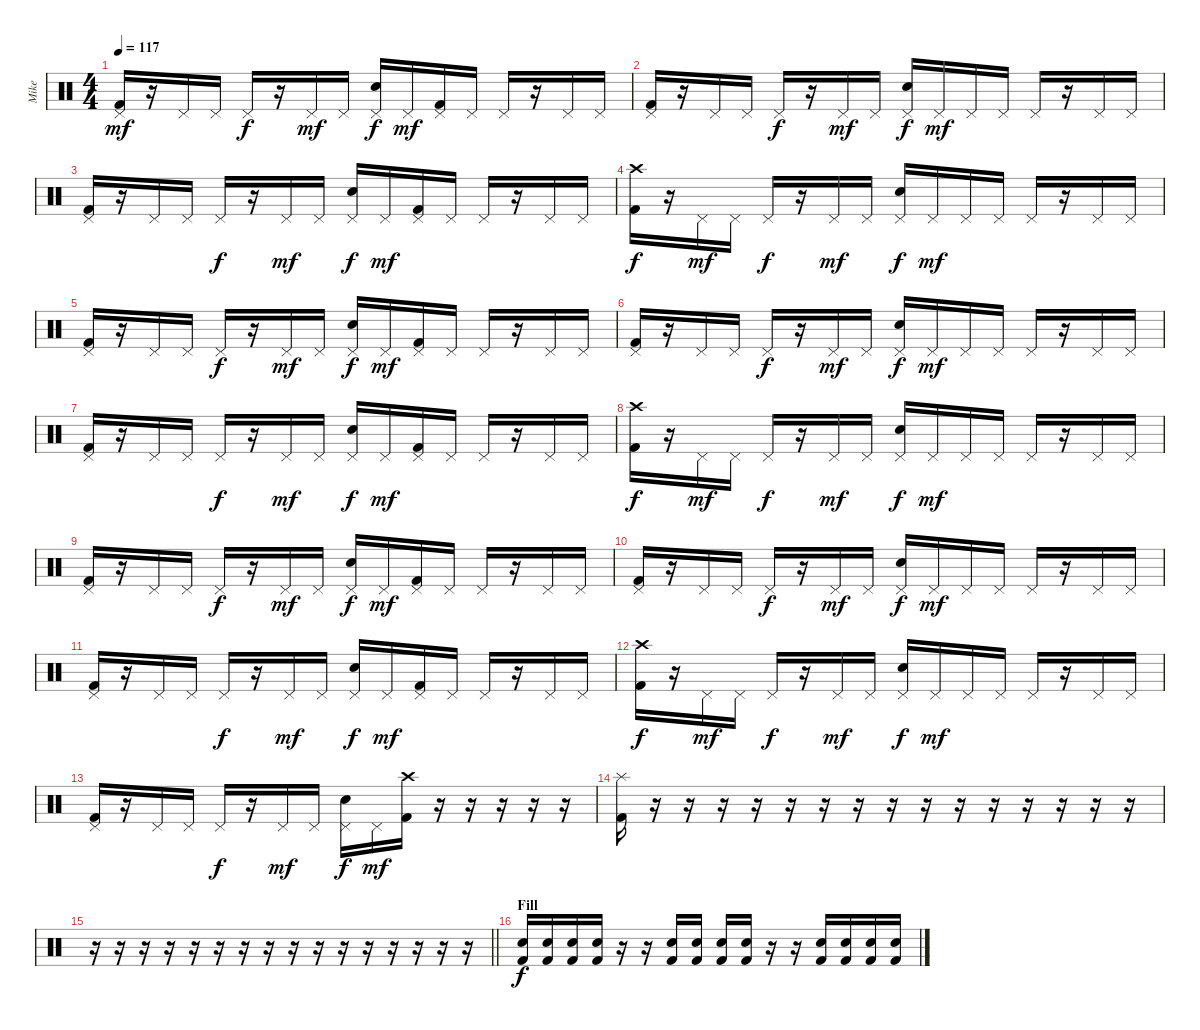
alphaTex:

\track ("Mike" "Mike") {instrument percussion}
\staff {score}
\articulation defaults
\ts (4 4)
\tempo 117
\clef neutral
\ks c
("Pedal Hi-Hat (hit)" "Kick (hit) 2").16{dy mf} r.16 "Pedal Hi-Hat (hit)".16 "Pedal Hi-Hat (hit)".16 "Pedal Hi-Hat (hit)".16{dy f} r.16 "Pedal Hi-Hat (hit)".16{dy mf} "Pedal Hi-Hat (hit)".16 ("Pedal Hi-Hat (hit)" "Snare (hit) 2").16{dy f} "Pedal Hi-Hat (hit)".16{dy mf} ("Pedal Hi-Hat (hit)" "Kick (hit) 2").16 "Pedal Hi-Hat (hit)".16 "Pedal Hi-Hat (hit)".16 r.16 "Pedal Hi-Hat (hit)".16 "Pedal Hi-Hat (hit)".16 |
("Pedal Hi-Hat (hit)" "Kick (hit) 2").16 r.16 "Pedal Hi-Hat (hit)".16 "Pedal Hi-Hat (hit)".16 "Pedal Hi-Hat (hit)".16{dy f} r.16 "Pedal Hi-Hat (hit)".16{dy mf} "Pedal Hi-Hat (hit)".16 ("Pedal Hi-Hat (hit)" "Snare (hit) 2").16{dy f} "Pedal Hi-Hat (hit)".16{dy mf} "Pedal Hi-Hat (hit)".16 "Pedal Hi-Hat (hit)".16 "Pedal Hi-Hat (hit)".16 r.16 "Pedal Hi-Hat (hit)".16 "Pedal Hi-Hat (hit)".16 |
("Pedal Hi-Hat (hit)" "Kick (hit) 2").16 r.16 "Pedal Hi-Hat (hit)".16 "Pedal Hi-Hat (hit)".16 "Pedal Hi-Hat (hit)".16{dy f} r.16 "Pedal Hi-Hat (hit)".16{dy mf} "Pedal Hi-Hat (hit)".16 ("Pedal Hi-Hat (hit)" "Snare (hit) 2").16{dy f} "Pedal Hi-Hat (hit)".16{dy mf} ("Pedal Hi-Hat (hit)" "Kick (hit) 2").16 "Pedal Hi-Hat (hit)".16 "Pedal Hi-Hat (hit)".16 r.16 "Pedal Hi-Hat (hit)".16 "Pedal Hi-Hat (hit)".16 |
("Crash high (hit)" "Kick (hit) 2").16{dy f} r.16 "Pedal Hi-Hat (hit)".16{dy mf} "Pedal Hi-Hat (hit)".16 "Pedal Hi-Hat (hit)".16{dy f} r.16 "Pedal Hi-Hat (hit)".16{dy mf} "Pedal Hi-Hat (hit)".16 ("Pedal Hi-Hat (hit)" "Snare (hit) 2").16{dy f} "Pedal Hi-Hat (hit)".16{dy mf} "Pedal Hi-Hat (hit)".16 "Pedal Hi-Hat (hit)".16 "Pedal Hi-Hat (hit)".16 r.16 "Pedal Hi-Hat (hit)".16 "Pedal Hi-Hat (hit)".16 |
("Pedal Hi-Hat (hit)" "Kick (hit) 2").16 r.16 "Pedal Hi-Hat (hit)".16 "Pedal Hi-Hat (hit)".16 "Pedal Hi-Hat (hit)".16{dy f} r.16 "Pedal Hi-Hat (hit)".16{dy mf} "Pedal Hi-Hat (hit)".16 ("Pedal Hi-Hat (hit)" "Snare (hit) 2").16{dy f} "Pedal Hi-Hat (hit)".16{dy mf} ("Pedal Hi-Hat (hit)" "Kick (hit) 2").16 "Pedal Hi-Hat (hit)".16 "Pedal Hi-Hat (hit)".16 r.16 "Pedal Hi-Hat (hit)".16 "Pedal Hi-Hat (hit)".16 |
("Pedal Hi-Hat (hit)" "Kick (hit) 2").16 r.16 "Pedal Hi-Hat (hit)".16 "Pedal Hi-Hat (hit)".16 "Pedal Hi-Hat (hit)".16{dy f} r.16 "Pedal Hi-Hat (hit)".16{dy mf} "Pedal Hi-Hat (hit)".16 ("Pedal Hi-Hat (hit)" "Snare (hit) 2").16{dy f} "Pedal Hi-Hat (hit)".16{dy mf} "Pedal Hi-Hat (hit)".16 "Pedal Hi-Hat (hit)".16 "Pedal Hi-Hat (hit)".16 r.16 "Pedal Hi-Hat (hit)".16 "Pedal Hi-Hat (hit)".16 |
("Pedal Hi-Hat (hit)" "Kick (hit) 2").16 r.16 "Pedal Hi-Hat (hit)".16 "Pedal Hi-Hat (hit)".16 "Pedal Hi-Hat (hit)".16{dy f} r.16 "Pedal Hi-Hat (hit)".16{dy mf} "Pedal Hi-Hat (hit)".16 ("Pedal Hi-Hat (hit)" "Snare (hit) 2").16{dy f} "Pedal Hi-Hat (hit)".16{dy mf} ("Pedal Hi-Hat (hit)" "Kick (hit) 2").16 "Pedal Hi-Hat (hit)".16 "Pedal Hi-Hat (hit)".16 r.16 "Pedal Hi-Hat (hit)".16 "Pedal Hi-Hat (hit)".16 |
("Crash high (hit)" "Kick (hit) 2").16{dy f} r.16 "Pedal Hi-Hat (hit)".16{dy mf} "Pedal Hi-Hat (hit)".16 "Pedal Hi-Hat (hit)".16{dy f} r.16 "Pedal Hi-Hat (hit)".16{dy mf} "Pedal Hi-Hat (hit)".16 ("Pedal Hi-Hat (hit)" "Snare (hit) 2").16{dy f} "Pedal Hi-Hat (hit)".16{dy mf} "Pedal Hi-Hat (hit)".16 "Pedal Hi-Hat (hit)".16 "Pedal Hi-Hat (hit)".16 r.16 "Pedal Hi-Hat (hit)".16 "Pedal Hi-Hat (hit)".16 |
("Pedal Hi-Hat (hit)" "Kick (hit) 2").16 r.16 "Pedal Hi-Hat (hit)".16 "Pedal Hi-Hat (hit)".16 "Pedal Hi-Hat (hit)".16{dy f} r.16 "Pedal Hi-Hat (hit)".16{dy mf} "Pedal Hi-Hat (hit)".16 ("Pedal Hi-Hat (hit)" "Snare (hit) 2").16{dy f} "Pedal Hi-Hat (hit)".16{dy mf} ("Pedal Hi-Hat (hit)" "Kick (hit) 2").16 "Pedal Hi-Hat (hit)".16 "Pedal Hi-Hat (hit)".16 r.16 "Pedal Hi-Hat (hit)".16 "Pedal Hi-Hat (hit)".16 |
("Pedal Hi-Hat (hit)" "Kick (hit) 2").16 r.16 "Pedal Hi-Hat (hit)".16 "Pedal Hi-Hat (hit)".16 "Pedal Hi-Hat (hit)".16{dy f} r.16 "Pedal Hi-Hat (hit)".16{dy mf} "Pedal Hi-Hat (hit)".16 ("Pedal Hi-Hat (hit)" "Snare (hit) 2").16{dy f} "Pedal Hi-Hat (hit)".16{dy mf} "Pedal Hi-Hat (hit)".16 "Pedal Hi-Hat (hit)".16 "Pedal Hi-Hat (hit)".16 r.16 "Pedal Hi-Hat (hit)".16 "Pedal Hi-Hat (hit)".16 |
("Pedal Hi-Hat (hit)" "Kick (hit) 2").16 r.16 "Pedal Hi-Hat (hit)".16 "Pedal Hi-Hat (hit)".16 "Pedal Hi-Hat (hit)".16{dy f} r.16 "Pedal Hi-Hat (hit)".16{dy mf} "Pedal Hi-Hat (hit)".16 ("Pedal Hi-Hat (hit)" "Snare (hit) 2").16{dy f} "Pedal Hi-Hat (hit)".16{dy mf} ("Pedal Hi-Hat (hit)" "Kick (hit) 2").16 "Pedal Hi-Hat (hit)".16 "Pedal Hi-Hat (hit)".16 r.16 "Pedal Hi-Hat (hit)".16 "Pedal Hi-Hat (hit)".16 |
("Crash high (hit)" "Kick (hit) 2").16{dy f} r.16 "Pedal Hi-Hat (hit)".16{dy mf} "Pedal Hi-Hat (hit)".16 "Pedal Hi-Hat (hit)".16{dy f} r.16 "Pedal Hi-Hat (hit)".16{dy mf} "Pedal Hi-Hat (hit)".16 ("Pedal Hi-Hat (hit)" "Snare (hit) 2").16{dy f} "Pedal Hi-Hat (hit)".16{dy mf} "Pedal Hi-Hat (hit)".16 "Pedal Hi-Hat (hit)".16 "Pedal Hi-Hat (hit)".16 r.16 "Pedal Hi-Hat (hit)".16 "Pedal Hi-Hat (hit)".16 |
("Pedal Hi-Hat (hit)" "Kick (hit) 2").16 r.16 "Pedal Hi-Hat (hit)".16 "Pedal Hi-Hat (hit)".16 "Pedal Hi-Hat (hit)".16{dy f} r.16 "Pedal Hi-Hat (hit)".16{dy mf} "Pedal Hi-Hat (hit)".16 ("Pedal Hi-Hat (hit)" "Snare (hit) 2").16{dy f} "Pedal Hi-Hat (hit)".16{dy mf} ("Crash high (hit)" "Kick (hit) 2").16 r.16 r.16 r.16 r.16 r.16 |
("Splash (hit)" "Kick (hit) 2").16 r.16 r.16 r.16 r.16 r.16 r.16 r.16 r.16 r.16 r.16 r.16 r.16 r.16 r.16 r.16 |
\barLineRight lightlight
r.16 r.16 r.16 r.16 r.16 r.16 r.16 r.16 r.16 r.16 r.16 r.16 r.16 r.16 r.16 r.16 |
\section ("" "Fill")
("Snare (hit) 2" "Kick (hit) 2").16{dy f} ("Snare (hit) 2" "Kick (hit) 2").16 ("Snare (hit) 2" "Kick (hit) 2").16 ("Snare (hit) 2" "Kick (hit) 2").16 r.16 r.16 ("Snare (hit) 2" "Kick (hit) 2").16 ("Snare (hit) 2" "Kick (hit) 2").16 ("Snare (hit) 2" "Kick (hit) 2").16 ("Snare (hit) 2" "Kick (hit) 2").16 r.16 r.16 ("Snare (hit) 2" "Kick (hit) 2").16 ("Snare (hit) 2" "Kick (hit) 2").16 ("Snare (hit) 2" "Kick (hit) 2").16 ("Snare (hit) 2" "Kick (hit) 2").16
